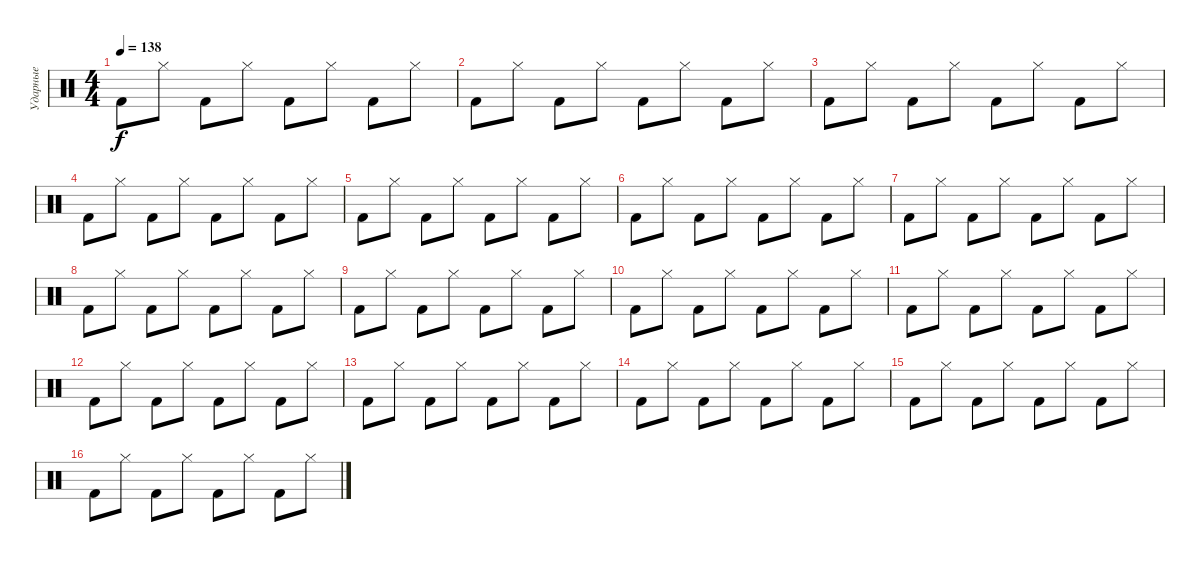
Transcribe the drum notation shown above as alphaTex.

\track ("Ударные" "Ударные") {instrument percussion}
\staff {score}
\articulation defaults
\ts (4 4)
\tempo 138
\clef neutral
\ks c "Kick (hit) 2".8{dy f} "Hi-Hat (closed)".8 "Kick (hit) 2".8 "Hi-Hat (closed)".8 "Kick (hit) 2".8 "Hi-Hat (closed)".8 "Kick (hit) 2".8 "Hi-Hat (closed)".8
|
"Kick (hit) 2".8 "Hi-Hat (closed)".8 "Kick (hit) 2".8 "Hi-Hat (closed)".8 "Kick (hit) 2".8 "Hi-Hat (closed)".8 "Kick (hit) 2".8 "Hi-Hat (closed)".8 |
"Kick (hit) 2".8 "Hi-Hat (closed)".8 "Kick (hit) 2".8 "Hi-Hat (closed)".8 "Kick (hit) 2".8 "Hi-Hat (closed)".8 "Kick (hit) 2".8 "Hi-Hat (closed)".8 |
"Kick (hit) 2".8 "Hi-Hat (closed)".8 "Kick (hit) 2".8 "Hi-Hat (closed)".8 "Kick (hit) 2".8 "Hi-Hat (closed)".8 "Kick (hit) 2".8 "Hi-Hat (closed)".8 |
"Kick (hit) 2".8 "Hi-Hat (closed)".8 "Kick (hit) 2".8 "Hi-Hat (closed)".8 "Kick (hit) 2".8 "Hi-Hat (closed)".8 "Kick (hit) 2".8 "Hi-Hat (closed)".8 |
"Kick (hit) 2".8 "Hi-Hat (closed)".8 "Kick (hit) 2".8 "Hi-Hat (closed)".8 "Kick (hit) 2".8 "Hi-Hat (closed)".8 "Kick (hit) 2".8 "Hi-Hat (closed)".8 |
"Kick (hit) 2".8 "Hi-Hat (closed)".8 "Kick (hit) 2".8 "Hi-Hat (closed)".8 "Kick (hit) 2".8 "Hi-Hat (closed)".8 "Kick (hit) 2".8 "Hi-Hat (closed)".8 |
"Kick (hit) 2".8 "Hi-Hat (closed)".8 "Kick (hit) 2".8 "Hi-Hat (closed)".8 "Kick (hit) 2".8 "Hi-Hat (closed)".8 "Kick (hit) 2".8 "Hi-Hat (closed)".8 |
"Kick (hit) 2".8 "Hi-Hat (closed)".8 "Kick (hit) 2".8 "Hi-Hat (closed)".8 "Kick (hit) 2".8 "Hi-Hat (closed)".8 "Kick (hit) 2".8 "Hi-Hat (closed)".8 |
"Kick (hit) 2".8 "Hi-Hat (closed)".8 "Kick (hit) 2".8 "Hi-Hat (closed)".8 "Kick (hit) 2".8 "Hi-Hat (closed)".8 "Kick (hit) 2".8 "Hi-Hat (closed)".8 |
"Kick (hit) 2".8 "Hi-Hat (closed)".8 "Kick (hit) 2".8 "Hi-Hat (closed)".8 "Kick (hit) 2".8 "Hi-Hat (closed)".8 "Kick (hit) 2".8 "Hi-Hat (closed)".8 |
"Kick (hit) 2".8 "Hi-Hat (closed)".8 "Kick (hit) 2".8 "Hi-Hat (closed)".8 "Kick (hit) 2".8 "Hi-Hat (closed)".8 "Kick (hit) 2".8 "Hi-Hat (closed)".8 |
"Kick (hit) 2".8 "Hi-Hat (closed)".8 "Kick (hit) 2".8 "Hi-Hat (closed)".8 "Kick (hit) 2".8 "Hi-Hat (closed)".8 "Kick (hit) 2".8 "Hi-Hat (closed)".8 |
"Kick (hit) 2".8 "Hi-Hat (closed)".8 "Kick (hit) 2".8 "Hi-Hat (closed)".8 "Kick (hit) 2".8 "Hi-Hat (closed)".8 "Kick (hit) 2".8 "Hi-Hat (closed)".8 |
"Kick (hit) 2".8 "Hi-Hat (closed)".8 "Kick (hit) 2".8 "Hi-Hat (closed)".8 "Kick (hit) 2".8 "Hi-Hat (closed)".8 "Kick (hit) 2".8 "Hi-Hat (closed)".8 |
"Kick (hit) 2".8 "Hi-Hat (closed)".8 "Kick (hit) 2".8 "Hi-Hat (closed)".8 "Kick (hit) 2".8 "Hi-Hat (closed)".8 "Kick (hit) 2".8 "Hi-Hat (closed)".8
